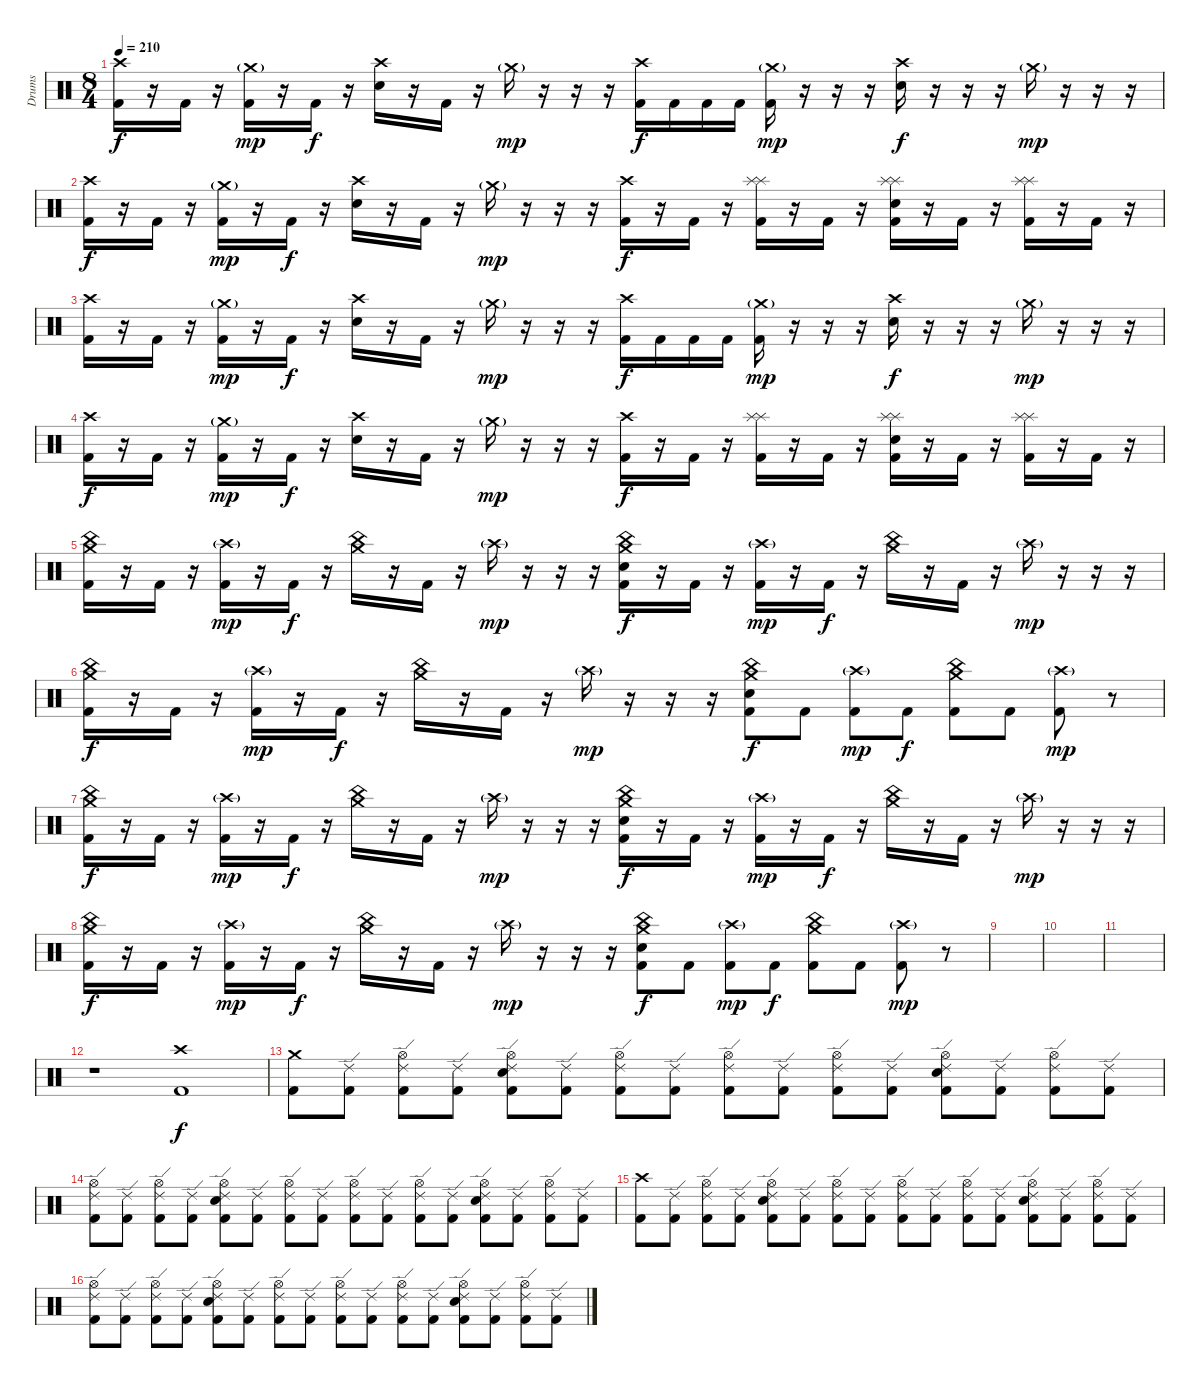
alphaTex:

\track ("Drums" "Drums") {instrument percussion}
\staff {score}
\articulation defaults
\ts (8 4)
\tempo 210
\clef neutral
\ks c
("Crash high (hit)" "Kick (hit) 2").16{dy f} r.16 "Kick (hit) 2".16 r.16 ("Crash medium (hit)"{g} "Kick (hit) 2").16{dy mp} r.16 "Kick (hit) 2".16{dy f} r.16 ("Crash high (hit)" "Electric Snare (hit)").16 r.16 "Kick (hit) 2".16 r.16 "Crash medium (hit)"{g}.16{dy mp} r.16 r.16 r.16 ("Crash high (hit)" "Kick (hit) 2").16{dy f} "Kick (hit) 2".16 "Kick (hit) 2".16 "Kick (hit) 2".16 ("Crash medium (hit)"{g} "Kick (hit) 2").16{dy mp} r.16 r.16 r.16 ("Crash high (hit)" "Electric Snare (hit)").16{dy f} r.16 r.16 r.16 "Crash medium (hit)"{g}.16{dy mp} r.16 r.16 r.16 |
("Crash high (hit)" "Kick (hit) 2").16{dy f} r.16 "Kick (hit) 2".16 r.16 ("Crash medium (hit)"{g} "Kick (hit) 2").16{dy mp} r.16 "Kick (hit) 2".16{dy f} r.16 ("Crash high (hit)" "Electric Snare (hit)").16 r.16 "Kick (hit) 2".16 r.16 "Crash medium (hit)"{g}.16{dy mp} r.16 r.16 r.16 ("Crash high (hit)" "Kick (hit) 2").16{dy f} r.16 "Kick (hit) 2".16 r.16 ("Splash (hit)" "Splash (hit)" "Kick (hit) 2").16 r.16 "Kick (hit) 2".16 r.16 ("Splash (hit)" "Splash (hit)" "Electric Snare (hit)" "Kick (hit) 2").16 r.16 "Kick (hit) 2".16 r.16 ("Splash (hit)" "Splash (hit)" "Kick (hit) 2").16 r.16 "Kick (hit) 2".16 r.16 |
("Crash high (hit)" "Kick (hit) 2").16 r.16 "Kick (hit) 2".16 r.16 ("Crash medium (hit)"{g} "Kick (hit) 2").16{dy mp} r.16 "Kick (hit) 2".16{dy f} r.16 ("Crash high (hit)" "Electric Snare (hit)").16 r.16 "Kick (hit) 2".16 r.16 "Crash medium (hit)"{g}.16{dy mp} r.16 r.16 r.16 ("Crash high (hit)" "Kick (hit) 2").16{dy f} "Kick (hit) 2".16 "Kick (hit) 2".16 "Kick (hit) 2".16 ("Crash medium (hit)"{g} "Kick (hit) 2").16{dy mp} r.16 r.16 r.16 ("Crash high (hit)" "Electric Snare (hit)").16{dy f} r.16 r.16 r.16 "Crash medium (hit)"{g}.16{dy mp} r.16 r.16 r.16 |
("Crash high (hit)" "Kick (hit) 2").16{dy f} r.16 "Kick (hit) 2".16 r.16 ("Crash medium (hit)"{g} "Kick (hit) 2").16{dy mp} r.16 "Kick (hit) 2".16{dy f} r.16 ("Crash high (hit)" "Electric Snare (hit)").16 r.16 "Kick (hit) 2".16 r.16 "Crash medium (hit)"{g}.16{dy mp} r.16 r.16 r.16 ("Crash high (hit)" "Kick (hit) 2").16{dy f} r.16 "Kick (hit) 2".16 r.16 ("Splash (hit)" "Splash (hit)" "Kick (hit) 2").16 r.16 "Kick (hit) 2".16 r.16 ("Splash (hit)" "Splash (hit)" "Electric Snare (hit)" "Kick (hit) 2").16 r.16 "Kick (hit) 2".16 r.16 ("Splash (hit)" "Splash (hit)" "Kick (hit) 2").16 r.16 "Kick (hit) 2".16 r.16 |
("China (hit)" "Crash medium (hit)" "Kick (hit) 2").16 r.16 "Kick (hit) 2".16 r.16 ("Crash high (hit)"{g} "Kick (hit) 2").16{dy mp} r.16 "Kick (hit) 2".16{dy f} r.16 ("China (hit)" "Crash medium (hit)").16 r.16 "Kick (hit) 2".16 r.16 "Crash high (hit)"{g}.16{dy mp} r.16 r.16 r.16 ("China (hit)" "Crash medium (hit)" "Electric Snare (hit)" "Kick (hit) 2").16{dy f} r.16 "Kick (hit) 2".16 r.16 ("Crash high (hit)"{g} "Kick (hit) 2").16{dy mp} r.16 "Kick (hit) 2".16{dy f} r.16 ("China (hit)" "Crash medium (hit)").16 r.16 "Kick (hit) 2".16 r.16 "Crash high (hit)"{g}.16{dy mp} r.16 r.16 r.16 |
("China (hit)" "Crash medium (hit)" "Kick (hit) 2").16{dy f} r.16 "Kick (hit) 2".16 r.16 ("Crash high (hit)"{g} "Kick (hit) 2").16{dy mp} r.16 "Kick (hit) 2".16{dy f} r.16 ("China (hit)" "Crash medium (hit)").16 r.16 "Kick (hit) 2".16 r.16 "Crash high (hit)"{g}.16{dy mp} r.16 r.16 r.16 ("China (hit)" "Crash medium (hit)" "Electric Snare (hit)" "Kick (hit) 2").8{dy f} "Kick (hit) 2".8 ("Crash high (hit)"{g} "Kick (hit) 2").8{dy mp} "Kick (hit) 2".8{dy f} ("China (hit)" "Crash medium (hit)" "Kick (hit) 2").8 "Kick (hit) 2".8 ("Crash high (hit)"{g} "Kick (hit) 2").8{dy mp} r.8 |
("China (hit)" "Crash medium (hit)" "Kick (hit) 2").16{dy f} r.16 "Kick (hit) 2".16 r.16 ("Crash high (hit)"{g} "Kick (hit) 2").16{dy mp} r.16 "Kick (hit) 2".16{dy f} r.16 ("China (hit)" "Crash medium (hit)").16 r.16 "Kick (hit) 2".16 r.16 "Crash high (hit)"{g}.16{dy mp} r.16 r.16 r.16 ("China (hit)" "Crash medium (hit)" "Electric Snare (hit)" "Kick (hit) 2").16{dy f} r.16 "Kick (hit) 2".16 r.16 ("Crash high (hit)"{g} "Kick (hit) 2").16{dy mp} r.16 "Kick (hit) 2".16{dy f} r.16 ("China (hit)" "Crash medium (hit)").16 r.16 "Kick (hit) 2".16 r.16 "Crash high (hit)"{g}.16{dy mp} r.16 r.16 r.16 |
("China (hit)" "Crash medium (hit)" "Kick (hit) 2").16{dy f} r.16 "Kick (hit) 2".16 r.16 ("Crash high (hit)"{g} "Kick (hit) 2").16{dy mp} r.16 "Kick (hit) 2".16{dy f} r.16 ("China (hit)" "Crash medium (hit)").16 r.16 "Kick (hit) 2".16 r.16 "Crash high (hit)"{g}.16{dy mp} r.16 r.16 r.16 ("China (hit)" "Crash medium (hit)" "Electric Snare (hit)" "Kick (hit) 2").8{dy f} "Kick (hit) 2".8 ("Crash high (hit)"{g} "Kick (hit) 2").8{dy mp} "Kick (hit) 2".8{dy f} ("China (hit)" "Crash medium (hit)" "Kick (hit) 2").8 "Kick (hit) 2".8 ("Crash high (hit)"{g} "Kick (hit) 2").8{dy mp} r.8 |
|
|
|
r.1 ("Crash high (hit)" "Kick (hit) 2").1{dy f} |
("Crash medium (hit)" "Kick (hit) 2").8 ("Ride (edge) 2" "Kick (hit) 2").8 ("Ride (edge) 2" "Hi-Hat (open)" "Kick (hit) 2").8 ("Ride (edge) 2" "Kick (hit) 2").8 ("Ride (edge) 2" "Electric Snare (hit)" "Hi-Hat (open)" "Kick (hit) 2").8 ("Ride (edge) 2" "Kick (hit) 2").8 ("Ride (edge) 2" "Hi-Hat (open)" "Kick (hit) 2").8 ("Ride (edge) 2" "Kick (hit) 2").8 ("Ride (edge) 2" "Hi-Hat (open)" "Kick (hit) 2").8 ("Ride (edge) 2" "Kick (hit) 2").8 ("Ride (edge) 2" "Hi-Hat (open)" "Kick (hit) 2").8 ("Ride (edge) 2" "Kick (hit) 2").8 ("Ride (edge) 2" "Electric Snare (hit)" "Hi-Hat (open)" "Kick (hit) 2").8 ("Ride (edge) 2" "Kick (hit) 2").8 ("Ride (edge) 2" "Hi-Hat (open)" "Kick (hit) 2").8 ("Ride (edge) 2" "Kick (hit) 2").8 |
("Ride (edge) 2" "Hi-Hat (open)" "Kick (hit) 2").8 ("Ride (edge) 2" "Kick (hit) 2").8 ("Ride (edge) 2" "Hi-Hat (open)" "Kick (hit) 2").8 ("Ride (edge) 2" "Kick (hit) 2").8 ("Ride (edge) 2" "Electric Snare (hit)" "Hi-Hat (open)" "Kick (hit) 2").8 ("Ride (edge) 2" "Kick (hit) 2").8 ("Ride (edge) 2" "Hi-Hat (open)" "Kick (hit) 2").8 ("Ride (edge) 2" "Kick (hit) 2").8 ("Ride (edge) 2" "Hi-Hat (open)" "Kick (hit) 2").8 ("Ride (edge) 2" "Kick (hit) 2").8 ("Ride (edge) 2" "Hi-Hat (open)" "Kick (hit) 2").8 ("Ride (edge) 2" "Kick (hit) 2").8 ("Ride (edge) 2" "Electric Snare (hit)" "Hi-Hat (open)" "Kick (hit) 2").8 ("Ride (edge) 2" "Kick (hit) 2").8 ("Ride (edge) 2" "Hi-Hat (open)" "Kick (hit) 2").8 ("Ride (edge) 2" "Kick (hit) 2").8 |
("Crash high (hit)" "Kick (hit) 2").8 ("Ride (edge) 2" "Kick (hit) 2").8 ("Ride (edge) 2" "Hi-Hat (open)" "Kick (hit) 2").8 ("Ride (edge) 2" "Kick (hit) 2").8 ("Ride (edge) 2" "Electric Snare (hit)" "Hi-Hat (open)" "Kick (hit) 2").8 ("Ride (edge) 2" "Kick (hit) 2").8 ("Ride (edge) 2" "Hi-Hat (open)" "Kick (hit) 2").8 ("Ride (edge) 2" "Kick (hit) 2").8 ("Ride (edge) 2" "Hi-Hat (open)" "Kick (hit) 2").8 ("Ride (edge) 2" "Kick (hit) 2").8 ("Ride (edge) 2" "Hi-Hat (open)" "Kick (hit) 2").8 ("Ride (edge) 2" "Kick (hit) 2").8 ("Ride (edge) 2" "Electric Snare (hit)" "Hi-Hat (open)" "Kick (hit) 2").8 ("Ride (edge) 2" "Kick (hit) 2").8 ("Ride (edge) 2" "Hi-Hat (open)" "Kick (hit) 2").8 ("Ride (edge) 2" "Kick (hit) 2").8 |
("Ride (edge) 2" "Hi-Hat (open)" "Kick (hit) 2").8 ("Ride (edge) 2" "Kick (hit) 2").8 ("Ride (edge) 2" "Hi-Hat (open)" "Kick (hit) 2").8 ("Ride (edge) 2" "Kick (hit) 2").8 ("Ride (edge) 2" "Electric Snare (hit)" "Hi-Hat (open)" "Kick (hit) 2").8 ("Ride (edge) 2" "Kick (hit) 2").8 ("Ride (edge) 2" "Hi-Hat (open)" "Kick (hit) 2").8 ("Ride (edge) 2" "Kick (hit) 2").8 ("Ride (edge) 2" "Hi-Hat (open)" "Kick (hit) 2").8 ("Ride (edge) 2" "Kick (hit) 2").8 ("Ride (edge) 2" "Hi-Hat (open)" "Kick (hit) 2").8 ("Ride (edge) 2" "Kick (hit) 2").8 ("Ride (edge) 2" "Electric Snare (hit)" "Hi-Hat (open)" "Kick (hit) 2").8 ("Ride (edge) 2" "Kick (hit) 2").8 ("Ride (edge) 2" "Hi-Hat (open)" "Kick (hit) 2").8 ("Ride (edge) 2" "Kick (hit) 2").8
